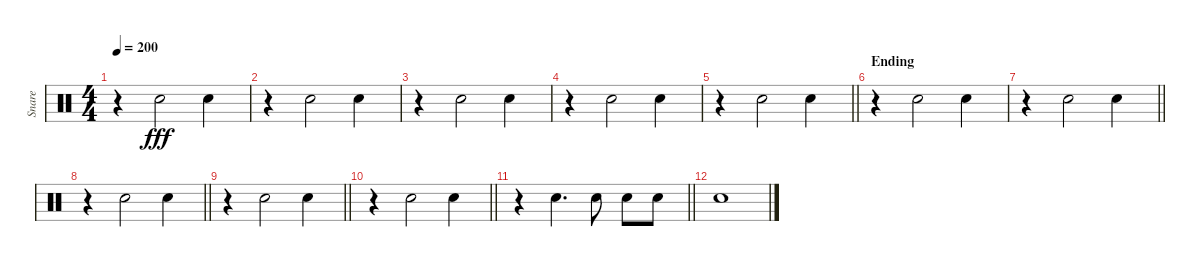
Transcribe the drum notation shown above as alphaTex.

\track ("Snare" "Snare") {instrument percussion}
\staff {score}
\articulation defaults
\ts (4 4)
\tempo 200
\clef neutral
\ks c
r.4{dy fff} "Snare (hit) 2".2 "Snare (hit) 2".4 |
r.4 "Snare (hit) 2".2 "Snare (hit) 2".4 |
r.4 "Snare (hit) 2".2 "Snare (hit) 2".4 |
r.4 "Snare (hit) 2".2 "Snare (hit) 2".4 |
\barLineRight lightlight
r.4 "Snare (hit) 2".2 "Snare (hit) 2".4 |
\section ("" "Ending")
r.4 "Snare (hit) 2".2 "Snare (hit) 2".4 |
\barLineRight lightlight
r.4 "Snare (hit) 2".2 "Snare (hit) 2".4 |
\barLineRight lightlight
r.4 "Snare (hit) 2".2 "Snare (hit) 2".4 |
\barLineRight lightlight
r.4 "Snare (hit) 2".2 "Snare (hit) 2".4 |
\barLineRight lightlight
r.4 "Snare (hit) 2".2 "Snare (hit) 2".4 |
\barLineRight lightlight
r.4 "Snare (hit) 2".4{d} "Snare (hit) 2".8 "Snare (hit) 2".8 "Snare (hit) 2".8 |
"Snare (hit) 2".1
